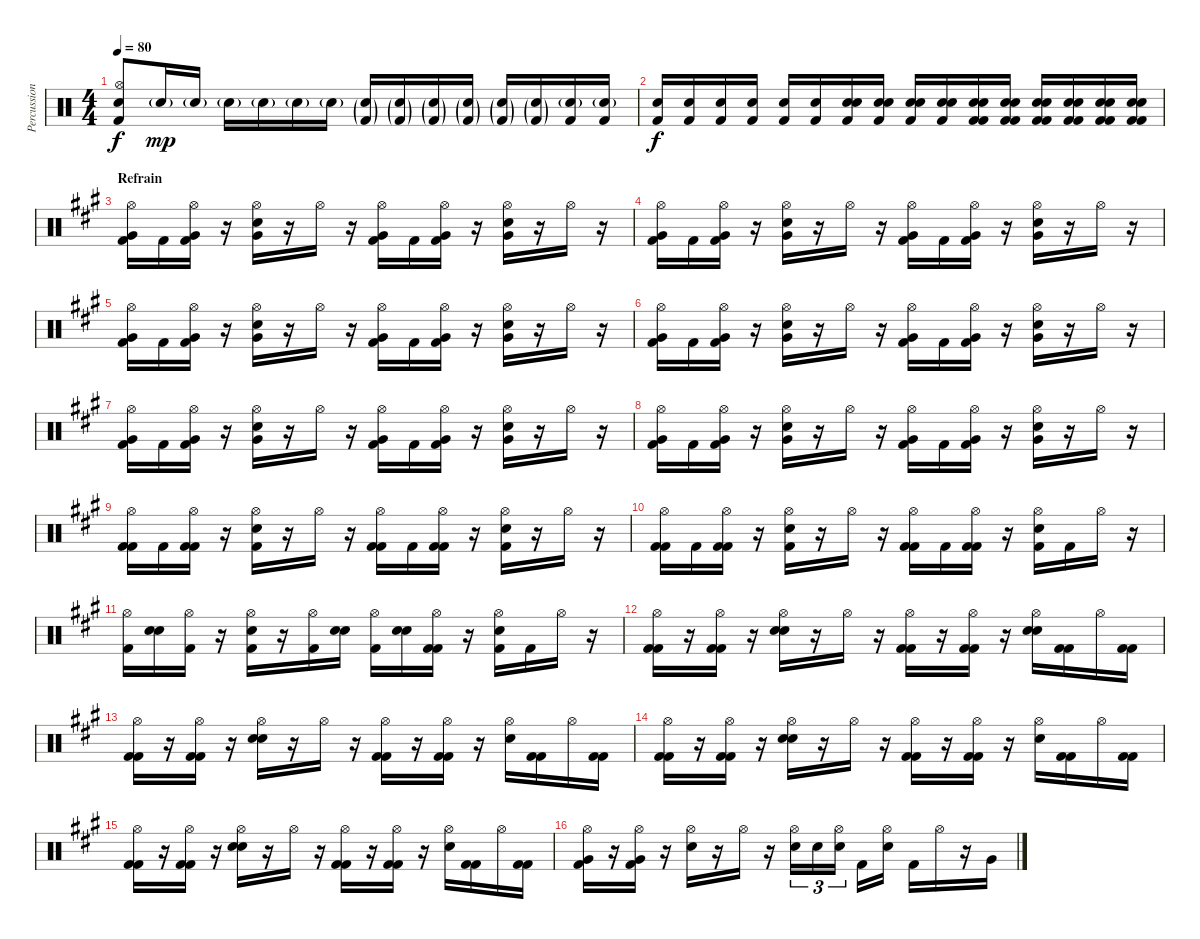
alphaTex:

\track ("Percussions" "Percussion") {instrument percussion}
\staff {score}
\articulation defaults
\ts (4 4)
\tempo 80
\clef neutral
\ks c
("Electric Snare (hit)" "Hi-Hat (open)" "Kick (hit) 2").8{dy f} "Electric Snare (hit)"{g}.16{dy mp} "Electric Snare (hit)"{g}.16 "Electric Snare (hit)"{g}.16 "Electric Snare (hit)"{g}.16 "Electric Snare (hit)"{g}.16 "Electric Snare (hit)"{g}.16 ("Electric Snare (hit)"{g} "Kick (hit) 2"{g}).16 ("Electric Snare (hit)"{g} "Kick (hit) 2"{g}).16 ("Electric Snare (hit)"{g} "Kick (hit) 2"{g}).16 ("Electric Snare (hit)"{g} "Kick (hit) 2"{g}).16 ("Electric Snare (hit)"{g} "Kick (hit) 2"{g}).16 ("Electric Snare (hit)"{g} "Kick (hit) 2"{g}).16 ("Electric Snare (hit)"{g} "Kick (hit) 2").16 ("Electric Snare (hit)"{g} "Kick (hit) 2").16 |
("Electric Snare (hit)" "Kick (hit) 2").16{dy f} ("Electric Snare (hit)" "Kick (hit) 2").16 ("Electric Snare (hit)" "Kick (hit) 2").16 ("Electric Snare (hit)" "Kick (hit) 2").16 ("Electric Snare (hit)" "Kick (hit) 2").16 ("Electric Snare (hit)" "Kick (hit) 2").16 ("Electric Snare (hit)" "Electric Snare (hit)" "Kick (hit) 2").16 ("Electric Snare (hit)" "Electric Snare (hit)" "Kick (hit) 2").16 ("Electric Snare (hit)" "Electric Snare (hit)" "Kick (hit) 2").16 ("Electric Snare (hit)" "Electric Snare (hit)" "Kick (hit) 2").16 ("Electric Snare (hit)" "Electric Snare (hit)" "Kick (hit) 2" "Kick (hit) 2").16 ("Electric Snare (hit)" "Electric Snare (hit)" "Kick (hit) 2" "Kick (hit) 2").16 ("Electric Snare (hit)" "Electric Snare (hit)" "Kick (hit) 2" "Kick (hit) 2").16 ("Electric Snare (hit)" "Electric Snare (hit)" "Kick (hit) 2" "Kick (hit) 2").16 ("Electric Snare (hit)" "Electric Snare (hit)" "Kick (hit) 2" "Kick (hit) 2").16 ("Electric Snare (hit)" "Electric Snare (hit)" "Kick (hit) 2" "Kick (hit) 2").16 |
\section ("" "Refrain")
\ks a
("Hi-Hat (open)" "Kick (hit) 2" "Very Low Tom (hit)").16 "Kick (hit) 2".16 ("Hi-Hat (open)" "Kick (hit) 2" "Very Low Tom (hit)").16 r.16 ("Hi-Hat (open)" "Electric Snare (hit)" "Very Low Tom (hit)").16 r.16 "Hi-Hat (open)".16 r.16 ("Hi-Hat (open)" "Kick (hit) 2" "Very Low Tom (hit)").16 "Kick (hit) 2".16 ("Hi-Hat (open)" "Kick (hit) 2" "Very Low Tom (hit)").16 r.16 ("Hi-Hat (open)" "Electric Snare (hit)" "Very Low Tom (hit)").16 r.16 "Hi-Hat (open)".16 r.16 |
("Hi-Hat (open)" "Kick (hit) 2" "Very Low Tom (hit)").16 "Kick (hit) 2".16 ("Hi-Hat (open)" "Kick (hit) 2" "Very Low Tom (hit)").16 r.16 ("Hi-Hat (open)" "Electric Snare (hit)" "Very Low Tom (hit)").16 r.16 "Hi-Hat (open)".16 r.16 ("Hi-Hat (open)" "Kick (hit) 2" "Very Low Tom (hit)").16 "Kick (hit) 2".16 ("Hi-Hat (open)" "Kick (hit) 2" "Very Low Tom (hit)").16 r.16 ("Hi-Hat (open)" "Electric Snare (hit)" "Very Low Tom (hit)").16 r.16 "Hi-Hat (open)".16 r.16 |
("Hi-Hat (open)" "Kick (hit) 2" "Very Low Tom (hit)").16 "Kick (hit) 2".16 ("Hi-Hat (open)" "Kick (hit) 2" "Very Low Tom (hit)").16 r.16 ("Hi-Hat (open)" "Electric Snare (hit)" "Very Low Tom (hit)").16 r.16 "Hi-Hat (open)".16 r.16 ("Hi-Hat (open)" "Kick (hit) 2" "Very Low Tom (hit)").16 "Kick (hit) 2".16 ("Hi-Hat (open)" "Kick (hit) 2" "Very Low Tom (hit)").16 r.16 ("Hi-Hat (open)" "Electric Snare (hit)" "Very Low Tom (hit)").16 r.16 "Hi-Hat (open)".16 r.16 |
("Hi-Hat (open)" "Kick (hit) 2" "Very Low Tom (hit)").16 "Kick (hit) 2".16 ("Hi-Hat (open)" "Kick (hit) 2" "Very Low Tom (hit)").16 r.16 ("Hi-Hat (open)" "Electric Snare (hit)" "Very Low Tom (hit)").16 r.16 "Hi-Hat (open)".16 r.16 ("Hi-Hat (open)" "Kick (hit) 2" "Very Low Tom (hit)").16 "Kick (hit) 2".16 ("Hi-Hat (open)" "Kick (hit) 2" "Very Low Tom (hit)").16 r.16 ("Hi-Hat (open)" "Electric Snare (hit)" "Very Low Tom (hit)").16 r.16 "Hi-Hat (open)".16 r.16 |
("Hi-Hat (open)" "Kick (hit) 2" "Very Low Tom (hit)").16 "Kick (hit) 2".16 ("Hi-Hat (open)" "Kick (hit) 2" "Very Low Tom (hit)").16 r.16 ("Hi-Hat (open)" "Electric Snare (hit)" "Very Low Tom (hit)").16 r.16 "Hi-Hat (open)".16 r.16 ("Hi-Hat (open)" "Kick (hit) 2" "Very Low Tom (hit)").16 "Kick (hit) 2".16 ("Hi-Hat (open)" "Kick (hit) 2" "Very Low Tom (hit)").16 r.16 ("Hi-Hat (open)" "Electric Snare (hit)" "Very Low Tom (hit)").16 r.16 "Hi-Hat (open)".16 r.16 |
("Hi-Hat (open)" "Kick (hit) 2" "Very Low Tom (hit)").16 "Kick (hit) 2".16 ("Hi-Hat (open)" "Kick (hit) 2" "Very Low Tom (hit)").16 r.16 ("Hi-Hat (open)" "Electric Snare (hit)" "Very Low Tom (hit)").16 r.16 "Hi-Hat (open)".16 r.16 ("Hi-Hat (open)" "Kick (hit) 2" "Very Low Tom (hit)").16 "Kick (hit) 2".16 ("Hi-Hat (open)" "Kick (hit) 2" "Very Low Tom (hit)").16 r.16 ("Hi-Hat (open)" "Electric Snare (hit)" "Very Low Tom (hit)").16 r.16 "Hi-Hat (open)".16 r.16 |
("Hi-Hat (open)" "Kick (hit) 2" "Kick (hit) 2").16 "Kick (hit) 2".16 ("Hi-Hat (open)" "Kick (hit) 2" "Kick (hit) 2").16 r.16 ("Hi-Hat (open)" "Electric Snare (hit)" "Kick (hit) 2").16 r.16 "Hi-Hat (open)".16 r.16 ("Hi-Hat (open)" "Kick (hit) 2" "Kick (hit) 2").16 "Kick (hit) 2".16 ("Hi-Hat (open)" "Kick (hit) 2" "Kick (hit) 2").16 r.16 ("Hi-Hat (open)" "Electric Snare (hit)" "Kick (hit) 2").16 r.16 "Hi-Hat (open)".16 r.16 |
("Hi-Hat (open)" "Kick (hit) 2" "Kick (hit) 2").16 "Kick (hit) 2".16 ("Hi-Hat (open)" "Kick (hit) 2" "Kick (hit) 2").16 r.16 ("Hi-Hat (open)" "Electric Snare (hit)" "Kick (hit) 2").16 r.16 "Hi-Hat (open)".16 r.16 ("Hi-Hat (open)" "Kick (hit) 2" "Kick (hit) 2").16 "Kick (hit) 2".16 ("Hi-Hat (open)" "Kick (hit) 2" "Kick (hit) 2").16 r.16 ("Hi-Hat (open)" "Electric Snare (hit)" "Kick (hit) 2").16 "Kick (hit) 2".16 "Hi-Hat (open)".16 r.16 |
("Hi-Hat (open)" "Kick (hit) 2").16 ("Electric Snare (hit)" "Electric Snare (hit)").16 ("Hi-Hat (open)" "Kick (hit) 2").16 r.16 ("Hi-Hat (open)" "Electric Snare (hit)" "Kick (hit) 2").16 r.16 ("Hi-Hat (open)" "Kick (hit) 2").16 ("Electric Snare (hit)" "Electric Snare (hit)").16 ("Hi-Hat (open)" "Kick (hit) 2").16 ("Electric Snare (hit)" "Electric Snare (hit)").16 ("Hi-Hat (open)" "Kick (hit) 2" "Kick (hit) 2").16 r.16 ("Hi-Hat (open)" "Electric Snare (hit)" "Kick (hit) 2").16 "Kick (hit) 2".16 "Hi-Hat (open)".16 r.16 |
("Hi-Hat (open)" "Kick (hit) 2" "Kick (hit) 2").16 r.16 ("Hi-Hat (open)" "Kick (hit) 2" "Kick (hit) 2").16 r.16 ("Hi-Hat (open)" "Electric Snare (hit)" "Electric Snare (hit)").16 r.16 "Hi-Hat (open)".16 r.16 ("Hi-Hat (open)" "Kick (hit) 2" "Kick (hit) 2").16 r.16 ("Hi-Hat (open)" "Kick (hit) 2" "Kick (hit) 2").16 r.16 ("Hi-Hat (open)" "Electric Snare (hit)" "Electric Snare (hit)").16 ("Kick (hit) 2" "Kick (hit) 2").16 "Hi-Hat (open)".16 ("Kick (hit) 2" "Kick (hit) 2").16 |
("Hi-Hat (open)" "Kick (hit) 2" "Kick (hit) 2").16 r.16 ("Hi-Hat (open)" "Kick (hit) 2" "Kick (hit) 2").16 r.16 ("Hi-Hat (open)" "Electric Snare (hit)" "Electric Snare (hit)").16 r.16 "Hi-Hat (open)".16 r.16 ("Hi-Hat (open)" "Kick (hit) 2" "Kick (hit) 2").16 r.16 ("Hi-Hat (open)" "Kick (hit) 2" "Kick (hit) 2").16 r.16 ("Hi-Hat (open)" "Electric Snare (hit)").16 ("Kick (hit) 2" "Kick (hit) 2").16 "Hi-Hat (open)".16 ("Kick (hit) 2" "Kick (hit) 2").16 |
("Hi-Hat (open)" "Kick (hit) 2" "Kick (hit) 2").16 r.16 ("Hi-Hat (open)" "Kick (hit) 2" "Kick (hit) 2").16 r.16 ("Hi-Hat (open)" "Electric Snare (hit)" "Electric Snare (hit)").16 r.16 "Hi-Hat (open)".16 r.16 ("Hi-Hat (open)" "Kick (hit) 2" "Kick (hit) 2").16 r.16 ("Hi-Hat (open)" "Kick (hit) 2" "Kick (hit) 2").16 r.16 ("Hi-Hat (open)" "Electric Snare (hit)").16 ("Kick (hit) 2" "Kick (hit) 2").16 "Hi-Hat (open)".16 ("Kick (hit) 2" "Kick (hit) 2").16 |
("Hi-Hat (open)" "Kick (hit) 2" "Kick (hit) 2").16 r.16 ("Hi-Hat (open)" "Kick (hit) 2" "Kick (hit) 2").16 r.16 ("Hi-Hat (open)" "Electric Snare (hit)" "Electric Snare (hit)").16 r.16 "Hi-Hat (open)".16 r.16 ("Hi-Hat (open)" "Kick (hit) 2" "Kick (hit) 2").16 r.16 ("Hi-Hat (open)" "Kick (hit) 2" "Kick (hit) 2").16 r.16 ("Hi-Hat (open)" "Electric Snare (hit)").16 ("Kick (hit) 2" "Kick (hit) 2").16 "Hi-Hat (open)".16 ("Kick (hit) 2" "Kick (hit) 2").16 |
("Hi-Hat (open)" "Kick (hit) 2" "Very Low Tom (hit)").16 r.16 ("Hi-Hat (open)" "Kick (hit) 2" "Very Low Tom (hit)").16 r.16 ("Hi-Hat (open)" "Electric Snare (hit)").16 r.16 "Hi-Hat (open)".16 r.16 ("Hi-Hat (open)" "Electric Snare (hit)").16{tu (3 2)} "Electric Snare (hit)".16{tu (3 2)} ("Hi-Hat (open)" "Electric Snare (hit)").16{tu (3 2)} "Kick (hit) 2".16 ("Hi-Hat (open)" "Electric Snare (hit)").16 "Kick (hit) 2".16 "Hi-Hat (open)".16 r.16 "Very Low Tom (hit)".16
